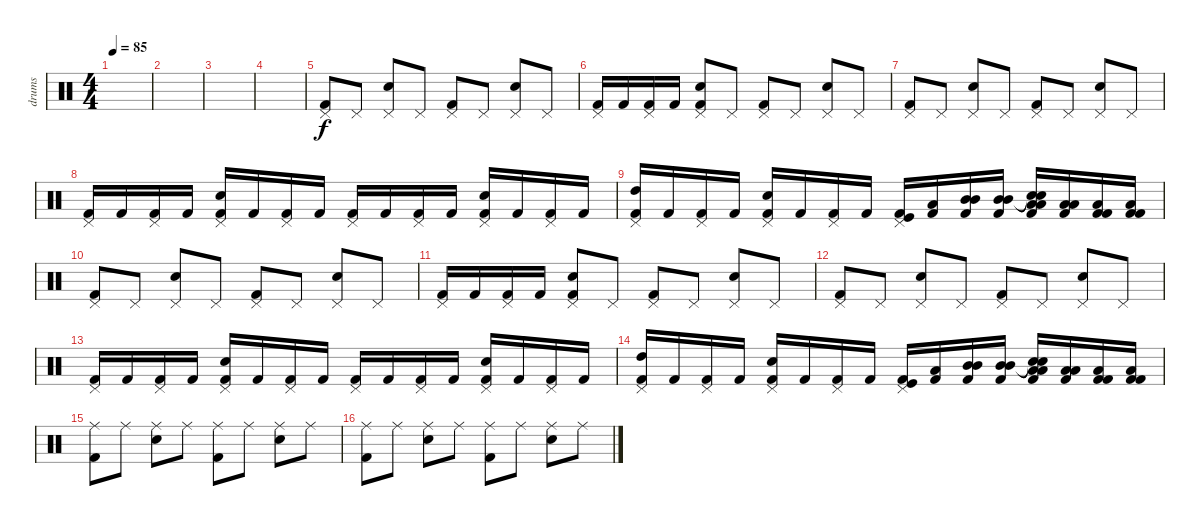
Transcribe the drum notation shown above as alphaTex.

\track ("drums" "drums") {instrument percussion}
\staff {score}
\articulation defaults
\ts (4 4)
\tempo 85
\clef neutral
\ks c
|
|
|
|
("Pedal Hi-Hat (hit)" "Kick (hit) 2").8 "Pedal Hi-Hat (hit)".8 ("Snare (hit) 2" "Pedal Hi-Hat (hit)").8 "Pedal Hi-Hat (hit)".8 ("Pedal Hi-Hat (hit)" "Kick (hit) 2").8 "Pedal Hi-Hat (hit)".8 ("Snare (hit) 2" "Pedal Hi-Hat (hit)").8 "Pedal Hi-Hat (hit)".8 |
("Pedal Hi-Hat (hit)" "Kick (hit) 2").16 "Kick (hit) 2".16 ("Pedal Hi-Hat (hit)" "Kick (hit) 2").16 "Kick (hit) 2".16 ("Snare (hit) 2" "Pedal Hi-Hat (hit)" "Kick (hit) 2").8 "Pedal Hi-Hat (hit)".8 ("Pedal Hi-Hat (hit)" "Kick (hit) 2").8 "Pedal Hi-Hat (hit)".8 ("Snare (hit) 2" "Pedal Hi-Hat (hit)").8 "Pedal Hi-Hat (hit)".8 |
("Pedal Hi-Hat (hit)" "Kick (hit) 2").8 "Pedal Hi-Hat (hit)".8 ("Snare (hit) 2" "Pedal Hi-Hat (hit)").8 "Pedal Hi-Hat (hit)".8 ("Pedal Hi-Hat (hit)" "Kick (hit) 2").8 "Pedal Hi-Hat (hit)".8 ("Snare (hit) 2" "Pedal Hi-Hat (hit)").8 "Pedal Hi-Hat (hit)".8 |
("Pedal Hi-Hat (hit)" "Kick (hit) 2").16 "Kick (hit) 2".16 ("Pedal Hi-Hat (hit)" "Kick (hit) 2").16 "Kick (hit) 2".16 ("Snare (hit) 2" "Pedal Hi-Hat (hit)" "Kick (hit) 2").16 "Kick (hit) 2".16 ("Pedal Hi-Hat (hit)" "Kick (hit) 2").16 "Kick (hit) 2".16 ("Pedal Hi-Hat (hit)" "Kick (hit) 2").16 "Kick (hit) 2".16 ("Pedal Hi-Hat (hit)" "Kick (hit) 2").16 "Kick (hit) 2".16 ("Snare (hit) 2" "Pedal Hi-Hat (hit)" "Kick (hit) 2").16 "Kick (hit) 2".16 ("Pedal Hi-Hat (hit)" "Kick (hit) 2").16 "Kick (hit) 2".16 |
("Pedal Hi-Hat (hit)" "High Tom (hit)" "Kick (hit) 2").16 "Kick (hit) 2".16 ("Pedal Hi-Hat (hit)" "Kick (hit) 2").16 "Kick (hit) 2".16 ("Snare (hit) 2" "Pedal Hi-Hat (hit)" "Kick (hit) 2").16 "Kick (hit) 2".16 ("Pedal Hi-Hat (hit)" "Kick (hit) 2").16 "Kick (hit) 2".16 ("Pedal Hi-Hat (hit)" "Kick (hit)" "Kick (hit) 2").16 ("Low Tom (hit)" "Kick (hit) 2").16 ("Mid Tom (hit)" "Mid Tom (hit)" "Kick (hit) 2").16 ("Mid Tom (hit)" "Mid Tom (hit)" "Kick (hit) 2").16 ("Snare (hit) 2"{t} "Snare (hit)"{t} "Low Tom (hit)" "Low Tom (hit)" "Kick (hit) 2").16 ("Low Tom (hit)" "Low Tom (hit)" "Kick (hit) 2").16 ("Low Floor Tom (hit)" "Kick (hit) 2" "Kick (hit) 2").16 ("Low Floor Tom (hit)" "Kick (hit) 2" "Kick (hit) 2").16 |
("Pedal Hi-Hat (hit)" "Kick (hit) 2").8 "Pedal Hi-Hat (hit)".8 ("Snare (hit) 2" "Pedal Hi-Hat (hit)").8 "Pedal Hi-Hat (hit)".8 ("Pedal Hi-Hat (hit)" "Kick (hit) 2").8 "Pedal Hi-Hat (hit)".8 ("Snare (hit) 2" "Pedal Hi-Hat (hit)").8 "Pedal Hi-Hat (hit)".8 |
("Pedal Hi-Hat (hit)" "Kick (hit) 2").16 "Kick (hit) 2".16 ("Pedal Hi-Hat (hit)" "Kick (hit) 2").16 "Kick (hit) 2".16 ("Snare (hit) 2" "Pedal Hi-Hat (hit)" "Kick (hit) 2").8 "Pedal Hi-Hat (hit)".8 ("Pedal Hi-Hat (hit)" "Kick (hit) 2").8 "Pedal Hi-Hat (hit)".8 ("Snare (hit) 2" "Pedal Hi-Hat (hit)").8 "Pedal Hi-Hat (hit)".8 |
("Pedal Hi-Hat (hit)" "Kick (hit) 2").8 "Pedal Hi-Hat (hit)".8 ("Snare (hit) 2" "Pedal Hi-Hat (hit)").8 "Pedal Hi-Hat (hit)".8 ("Pedal Hi-Hat (hit)" "Kick (hit) 2").8 "Pedal Hi-Hat (hit)".8 ("Snare (hit) 2" "Pedal Hi-Hat (hit)").8 "Pedal Hi-Hat (hit)".8 |
("Pedal Hi-Hat (hit)" "Kick (hit) 2").16 "Kick (hit) 2".16 ("Pedal Hi-Hat (hit)" "Kick (hit) 2").16 "Kick (hit) 2".16 ("Snare (hit) 2" "Pedal Hi-Hat (hit)" "Kick (hit) 2").16 "Kick (hit) 2".16 ("Pedal Hi-Hat (hit)" "Kick (hit) 2").16 "Kick (hit) 2".16 ("Pedal Hi-Hat (hit)" "Kick (hit) 2").16 "Kick (hit) 2".16 ("Pedal Hi-Hat (hit)" "Kick (hit) 2").16 "Kick (hit) 2".16 ("Snare (hit) 2" "Pedal Hi-Hat (hit)" "Kick (hit) 2").16 "Kick (hit) 2".16 ("Pedal Hi-Hat (hit)" "Kick (hit) 2").16 "Kick (hit) 2".16 |
("Pedal Hi-Hat (hit)" "High Tom (hit)" "Kick (hit) 2").16 "Kick (hit) 2".16 ("Pedal Hi-Hat (hit)" "Kick (hit) 2").16 "Kick (hit) 2".16 ("Snare (hit) 2" "Pedal Hi-Hat (hit)" "Kick (hit) 2").16 "Kick (hit) 2".16 ("Pedal Hi-Hat (hit)" "Kick (hit) 2").16 "Kick (hit) 2".16 ("Pedal Hi-Hat (hit)" "Kick (hit)" "Kick (hit) 2").16 ("Low Tom (hit)" "Kick (hit) 2").16 ("Mid Tom (hit)" "Mid Tom (hit)" "Kick (hit) 2").16 ("Mid Tom (hit)" "Mid Tom (hit)" "Kick (hit) 2").16 ("Snare (hit) 2"{t} "Snare (hit)"{t} "Low Tom (hit)" "Low Tom (hit)" "Kick (hit) 2").16 ("Low Tom (hit)" "Low Tom (hit)" "Kick (hit) 2").16 ("Low Floor Tom (hit)" "Kick (hit) 2" "Kick (hit) 2").16 ("Low Floor Tom (hit)" "Kick (hit) 2" "Kick (hit) 2").16 |
("Ride (middle)" "Kick (hit) 2").8 "Ride (middle)".8 ("Snare (hit) 2" "Ride (middle)").8 "Ride (middle)".8 ("Ride (middle)" "Kick (hit) 2").8 "Ride (middle)".8 ("Snare (hit) 2" "Ride (middle)").8 "Ride (middle)".8 |
("Ride (middle)" "Kick (hit) 2").8 "Ride (middle)".8 ("Snare (hit) 2" "Ride (middle)").8 "Ride (middle)".8 ("Ride (middle)" "Kick (hit) 2").8 "Ride (middle)".8 ("Snare (hit) 2" "Ride (middle)").8 "Ride (middle)".8
